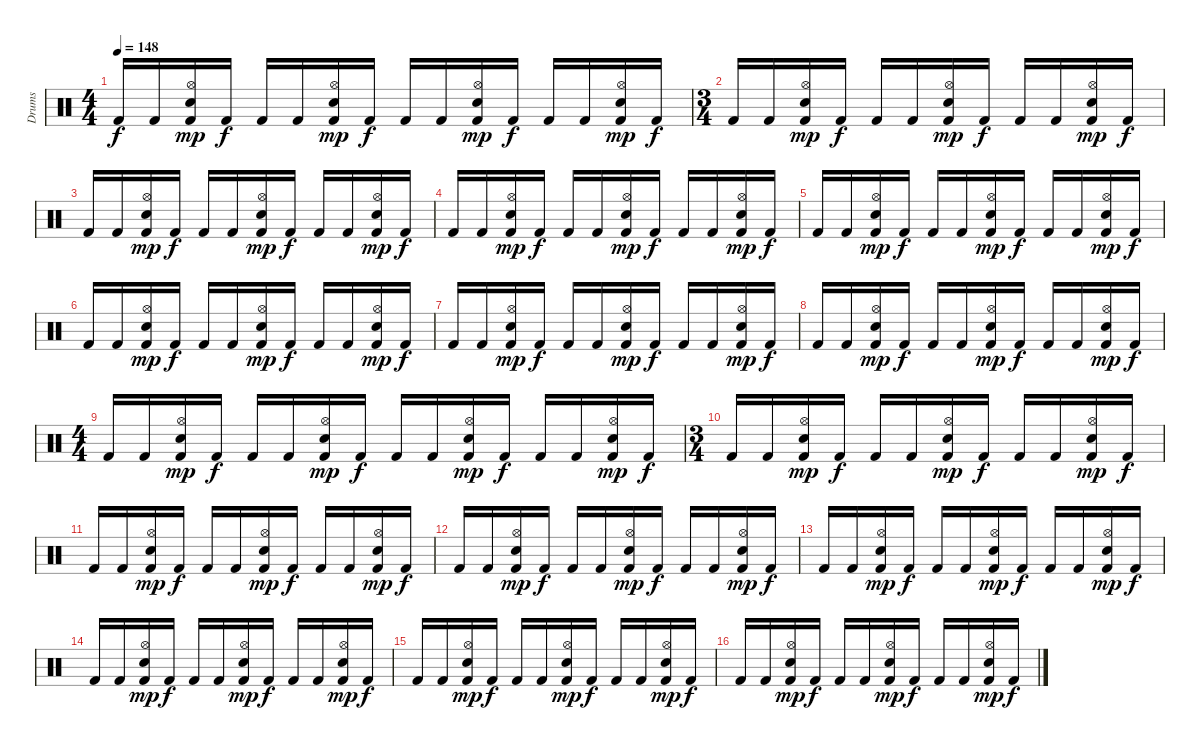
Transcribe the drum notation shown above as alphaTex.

\track ("Drums" "Drums") {instrument percussion}
\staff
\articulation defaults
\ts (4 4)
\tempo 148
\clef neutral
\ks c "Kick (hit) 2".16{dy f} "Kick (hit) 2".16
("Hi-Hat (open)" "Kick (hit) 2" "Electric Snare (hit)").16{dy mp} "Kick (hit) 2".16{dy f} "Kick (hit) 2".16 "Kick (hit) 2".16 ("Hi-Hat (open)" "Kick (hit) 2" "Electric Snare (hit)").16{dy mp} "Kick (hit) 2".16{dy f} "Kick (hit) 2".16 "Kick (hit) 2".16 ("Hi-Hat (open)" "Kick (hit) 2" "Electric Snare (hit)").16{dy mp} "Kick (hit) 2".16{dy f} "Kick (hit) 2".16 "Kick (hit) 2".16 ("Hi-Hat (open)" "Kick (hit) 2" "Electric Snare (hit)").16{dy mp} "Kick (hit) 2".16{dy f} |
\ts (3 4)
"Kick (hit) 2".16 "Kick (hit) 2".16 ("Hi-Hat (open)" "Kick (hit) 2" "Electric Snare (hit)").16{dy mp} "Kick (hit) 2".16{dy f} "Kick (hit) 2".16 "Kick (hit) 2".16 ("Hi-Hat (open)" "Kick (hit) 2" "Electric Snare (hit)").16{dy mp} "Kick (hit) 2".16{dy f} "Kick (hit) 2".16 "Kick (hit) 2".16 ("Hi-Hat (open)" "Kick (hit) 2" "Electric Snare (hit)").16{dy mp} "Kick (hit) 2".16{dy f} |
"Kick (hit) 2".16 "Kick (hit) 2".16 ("Hi-Hat (open)" "Kick (hit) 2" "Electric Snare (hit)").16{dy mp} "Kick (hit) 2".16{dy f} "Kick (hit) 2".16 "Kick (hit) 2".16 ("Hi-Hat (open)" "Kick (hit) 2" "Electric Snare (hit)").16{dy mp} "Kick (hit) 2".16{dy f} "Kick (hit) 2".16 "Kick (hit) 2".16 ("Hi-Hat (open)" "Kick (hit) 2" "Electric Snare (hit)").16{dy mp} "Kick (hit) 2".16{dy f} |
"Kick (hit) 2".16 "Kick (hit) 2".16 ("Hi-Hat (open)" "Kick (hit) 2" "Electric Snare (hit)").16{dy mp} "Kick (hit) 2".16{dy f} "Kick (hit) 2".16 "Kick (hit) 2".16 ("Hi-Hat (open)" "Kick (hit) 2" "Electric Snare (hit)").16{dy mp} "Kick (hit) 2".16{dy f} "Kick (hit) 2".16 "Kick (hit) 2".16 ("Hi-Hat (open)" "Kick (hit) 2" "Electric Snare (hit)").16{dy mp} "Kick (hit) 2".16{dy f} |
"Kick (hit) 2".16 "Kick (hit) 2".16 ("Hi-Hat (open)" "Kick (hit) 2" "Electric Snare (hit)").16{dy mp} "Kick (hit) 2".16{dy f} "Kick (hit) 2".16 "Kick (hit) 2".16 ("Hi-Hat (open)" "Kick (hit) 2" "Electric Snare (hit)").16{dy mp} "Kick (hit) 2".16{dy f} "Kick (hit) 2".16 "Kick (hit) 2".16 ("Hi-Hat (open)" "Kick (hit) 2" "Electric Snare (hit)").16{dy mp} "Kick (hit) 2".16{dy f} |
"Kick (hit) 2".16 "Kick (hit) 2".16 ("Hi-Hat (open)" "Kick (hit) 2" "Electric Snare (hit)").16{dy mp} "Kick (hit) 2".16{dy f} "Kick (hit) 2".16 "Kick (hit) 2".16 ("Hi-Hat (open)" "Kick (hit) 2" "Electric Snare (hit)").16{dy mp} "Kick (hit) 2".16{dy f} "Kick (hit) 2".16 "Kick (hit) 2".16 ("Hi-Hat (open)" "Kick (hit) 2" "Electric Snare (hit)").16{dy mp} "Kick (hit) 2".16{dy f} |
"Kick (hit) 2".16 "Kick (hit) 2".16 ("Hi-Hat (open)" "Kick (hit) 2" "Electric Snare (hit)").16{dy mp} "Kick (hit) 2".16{dy f} "Kick (hit) 2".16 "Kick (hit) 2".16 ("Hi-Hat (open)" "Kick (hit) 2" "Electric Snare (hit)").16{dy mp} "Kick (hit) 2".16{dy f} "Kick (hit) 2".16 "Kick (hit) 2".16 ("Hi-Hat (open)" "Kick (hit) 2" "Electric Snare (hit)").16{dy mp} "Kick (hit) 2".16{dy f} |
"Kick (hit) 2".16 "Kick (hit) 2".16 ("Hi-Hat (open)" "Kick (hit) 2" "Electric Snare (hit)").16{dy mp} "Kick (hit) 2".16{dy f} "Kick (hit) 2".16 "Kick (hit) 2".16 ("Hi-Hat (open)" "Kick (hit) 2" "Electric Snare (hit)").16{dy mp} "Kick (hit) 2".16{dy f} "Kick (hit) 2".16 "Kick (hit) 2".16 ("Hi-Hat (open)" "Kick (hit) 2" "Electric Snare (hit)").16{dy mp} "Kick (hit) 2".16{dy f} |
\ts (4 4)
"Kick (hit) 2".16 "Kick (hit) 2".16 ("Hi-Hat (open)" "Kick (hit) 2" "Electric Snare (hit)").16{dy mp} "Kick (hit) 2".16{dy f} "Kick (hit) 2".16 "Kick (hit) 2".16 ("Hi-Hat (open)" "Kick (hit) 2" "Electric Snare (hit)").16{dy mp} "Kick (hit) 2".16{dy f} "Kick (hit) 2".16 "Kick (hit) 2".16 ("Hi-Hat (open)" "Kick (hit) 2" "Electric Snare (hit)").16{dy mp} "Kick (hit) 2".16{dy f} "Kick (hit) 2".16 "Kick (hit) 2".16 ("Hi-Hat (open)" "Kick (hit) 2" "Electric Snare (hit)").16{dy mp} "Kick (hit) 2".16{dy f} |
\ts (3 4)
"Kick (hit) 2".16 "Kick (hit) 2".16 ("Hi-Hat (open)" "Kick (hit) 2" "Electric Snare (hit)").16{dy mp} "Kick (hit) 2".16{dy f} "Kick (hit) 2".16 "Kick (hit) 2".16 ("Hi-Hat (open)" "Kick (hit) 2" "Electric Snare (hit)").16{dy mp} "Kick (hit) 2".16{dy f} "Kick (hit) 2".16 "Kick (hit) 2".16 ("Hi-Hat (open)" "Kick (hit) 2" "Electric Snare (hit)").16{dy mp} "Kick (hit) 2".16{dy f} |
"Kick (hit) 2".16 "Kick (hit) 2".16 ("Hi-Hat (open)" "Kick (hit) 2" "Electric Snare (hit)").16{dy mp} "Kick (hit) 2".16{dy f} "Kick (hit) 2".16 "Kick (hit) 2".16 ("Hi-Hat (open)" "Kick (hit) 2" "Electric Snare (hit)").16{dy mp} "Kick (hit) 2".16{dy f} "Kick (hit) 2".16 "Kick (hit) 2".16 ("Hi-Hat (open)" "Kick (hit) 2" "Electric Snare (hit)").16{dy mp} "Kick (hit) 2".16{dy f} |
"Kick (hit) 2".16 "Kick (hit) 2".16 ("Hi-Hat (open)" "Kick (hit) 2" "Electric Snare (hit)").16{dy mp} "Kick (hit) 2".16{dy f} "Kick (hit) 2".16 "Kick (hit) 2".16 ("Hi-Hat (open)" "Kick (hit) 2" "Electric Snare (hit)").16{dy mp} "Kick (hit) 2".16{dy f} "Kick (hit) 2".16 "Kick (hit) 2".16 ("Hi-Hat (open)" "Kick (hit) 2" "Electric Snare (hit)").16{dy mp} "Kick (hit) 2".16{dy f} |
"Kick (hit) 2".16 "Kick (hit) 2".16 ("Hi-Hat (open)" "Kick (hit) 2" "Electric Snare (hit)").16{dy mp} "Kick (hit) 2".16{dy f} "Kick (hit) 2".16 "Kick (hit) 2".16 ("Hi-Hat (open)" "Kick (hit) 2" "Electric Snare (hit)").16{dy mp} "Kick (hit) 2".16{dy f} "Kick (hit) 2".16 "Kick (hit) 2".16 ("Hi-Hat (open)" "Kick (hit) 2" "Electric Snare (hit)").16{dy mp} "Kick (hit) 2".16{dy f} |
"Kick (hit) 2".16 "Kick (hit) 2".16 ("Hi-Hat (open)" "Kick (hit) 2" "Electric Snare (hit)").16{dy mp} "Kick (hit) 2".16{dy f} "Kick (hit) 2".16 "Kick (hit) 2".16 ("Hi-Hat (open)" "Kick (hit) 2" "Electric Snare (hit)").16{dy mp} "Kick (hit) 2".16{dy f} "Kick (hit) 2".16 "Kick (hit) 2".16 ("Hi-Hat (open)" "Kick (hit) 2" "Electric Snare (hit)").16{dy mp} "Kick (hit) 2".16{dy f} |
"Kick (hit) 2".16 "Kick (hit) 2".16 ("Hi-Hat (open)" "Kick (hit) 2" "Electric Snare (hit)").16{dy mp} "Kick (hit) 2".16{dy f} "Kick (hit) 2".16 "Kick (hit) 2".16 ("Hi-Hat (open)" "Kick (hit) 2" "Electric Snare (hit)").16{dy mp} "Kick (hit) 2".16{dy f} "Kick (hit) 2".16 "Kick (hit) 2".16 ("Hi-Hat (open)" "Kick (hit) 2" "Electric Snare (hit)").16{dy mp} "Kick (hit) 2".16{dy f} |
"Kick (hit) 2".16 "Kick (hit) 2".16 ("Hi-Hat (open)" "Kick (hit) 2" "Electric Snare (hit)").16{dy mp} "Kick (hit) 2".16{dy f} "Kick (hit) 2".16 "Kick (hit) 2".16 ("Hi-Hat (open)" "Kick (hit) 2" "Electric Snare (hit)").16{dy mp} "Kick (hit) 2".16{dy f} "Kick (hit) 2".16 "Kick (hit) 2".16 ("Hi-Hat (open)" "Kick (hit) 2" "Electric Snare (hit)").16{dy mp} "Kick (hit) 2".16{dy f}
